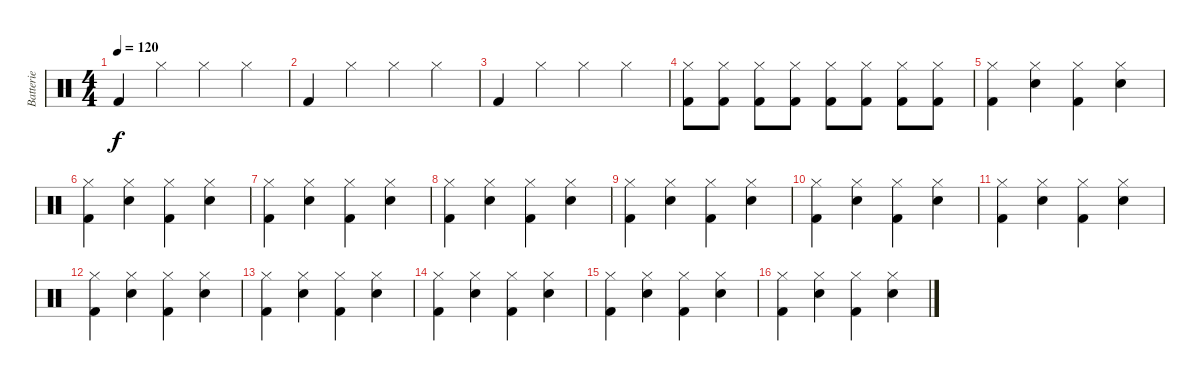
\track ("Batterie" "Batterie") {instrument percussion}
\staff {score}
\articulation defaults
\ts (4 4)
\tempo 120
\clef neutral
\ks c "Kick (hit) 2".4{dy f} "Hi-Hat (closed)".4 "Hi-Hat (closed)".4 "Hi-Hat (closed)".4
|
"Kick (hit) 2".4 "Hi-Hat (closed)".4 "Hi-Hat (closed)".4 "Hi-Hat (closed)".4 |
"Kick (hit) 2".4 "Hi-Hat (closed)".4 "Hi-Hat (closed)".4 "Hi-Hat (closed)".4 |
("Hi-Hat (closed)" "Kick (hit) 2").8 ("Hi-Hat (closed)" "Kick (hit) 2").8 ("Hi-Hat (closed)" "Kick (hit) 2").8 ("Hi-Hat (closed)" "Kick (hit) 2").8 ("Hi-Hat (closed)" "Kick (hit) 2").8 ("Hi-Hat (closed)" "Kick (hit) 2").8 ("Hi-Hat (closed)" "Kick (hit) 2").8 ("Hi-Hat (closed)" "Kick (hit) 2").8 |
("Hi-Hat (closed)" "Kick (hit) 2").4 ("Hi-Hat (closed)" "Snare (hit) 2").4 ("Hi-Hat (closed)" "Kick (hit) 2").4 ("Hi-Hat (closed)" "Snare (hit) 2").4 |
("Hi-Hat (closed)" "Kick (hit) 2").4 ("Hi-Hat (closed)" "Snare (hit) 2").4 ("Hi-Hat (closed)" "Kick (hit) 2").4 ("Hi-Hat (closed)" "Snare (hit) 2").4 |
("Hi-Hat (closed)" "Kick (hit) 2").4 ("Hi-Hat (closed)" "Snare (hit) 2").4 ("Hi-Hat (closed)" "Kick (hit) 2").4 ("Hi-Hat (closed)" "Snare (hit) 2").4 |
("Hi-Hat (closed)" "Kick (hit) 2").4 ("Hi-Hat (closed)" "Snare (hit) 2").4 ("Hi-Hat (closed)" "Kick (hit) 2").4 ("Hi-Hat (closed)" "Snare (hit) 2").4 |
("Hi-Hat (closed)" "Kick (hit) 2").4 ("Hi-Hat (closed)" "Snare (hit) 2").4 ("Hi-Hat (closed)" "Kick (hit) 2").4 ("Hi-Hat (closed)" "Snare (hit) 2").4 |
("Hi-Hat (closed)" "Kick (hit) 2").4 ("Hi-Hat (closed)" "Snare (hit) 2").4 ("Hi-Hat (closed)" "Kick (hit) 2").4 ("Hi-Hat (closed)" "Snare (hit) 2").4 |
("Hi-Hat (closed)" "Kick (hit) 2").4 ("Hi-Hat (closed)" "Snare (hit) 2").4 ("Hi-Hat (closed)" "Kick (hit) 2").4 ("Hi-Hat (closed)" "Snare (hit) 2").4 |
("Hi-Hat (closed)" "Kick (hit) 2").4 ("Hi-Hat (closed)" "Snare (hit) 2").4 ("Hi-Hat (closed)" "Kick (hit) 2").4 ("Hi-Hat (closed)" "Snare (hit) 2").4 |
("Hi-Hat (closed)" "Kick (hit) 2").4 ("Hi-Hat (closed)" "Snare (hit) 2").4 ("Hi-Hat (closed)" "Kick (hit) 2").4 ("Hi-Hat (closed)" "Snare (hit) 2").4 |
("Hi-Hat (closed)" "Kick (hit) 2").4 ("Hi-Hat (closed)" "Snare (hit) 2").4 ("Hi-Hat (closed)" "Kick (hit) 2").4 ("Hi-Hat (closed)" "Snare (hit) 2").4 |
("Hi-Hat (closed)" "Kick (hit) 2").4 ("Hi-Hat (closed)" "Snare (hit) 2").4 ("Hi-Hat (closed)" "Kick (hit) 2").4 ("Hi-Hat (closed)" "Snare (hit) 2").4 |
("Hi-Hat (closed)" "Kick (hit) 2").4 ("Hi-Hat (closed)" "Snare (hit) 2").4 ("Hi-Hat (closed)" "Kick (hit) 2").4 ("Hi-Hat (closed)" "Snare (hit) 2").4
